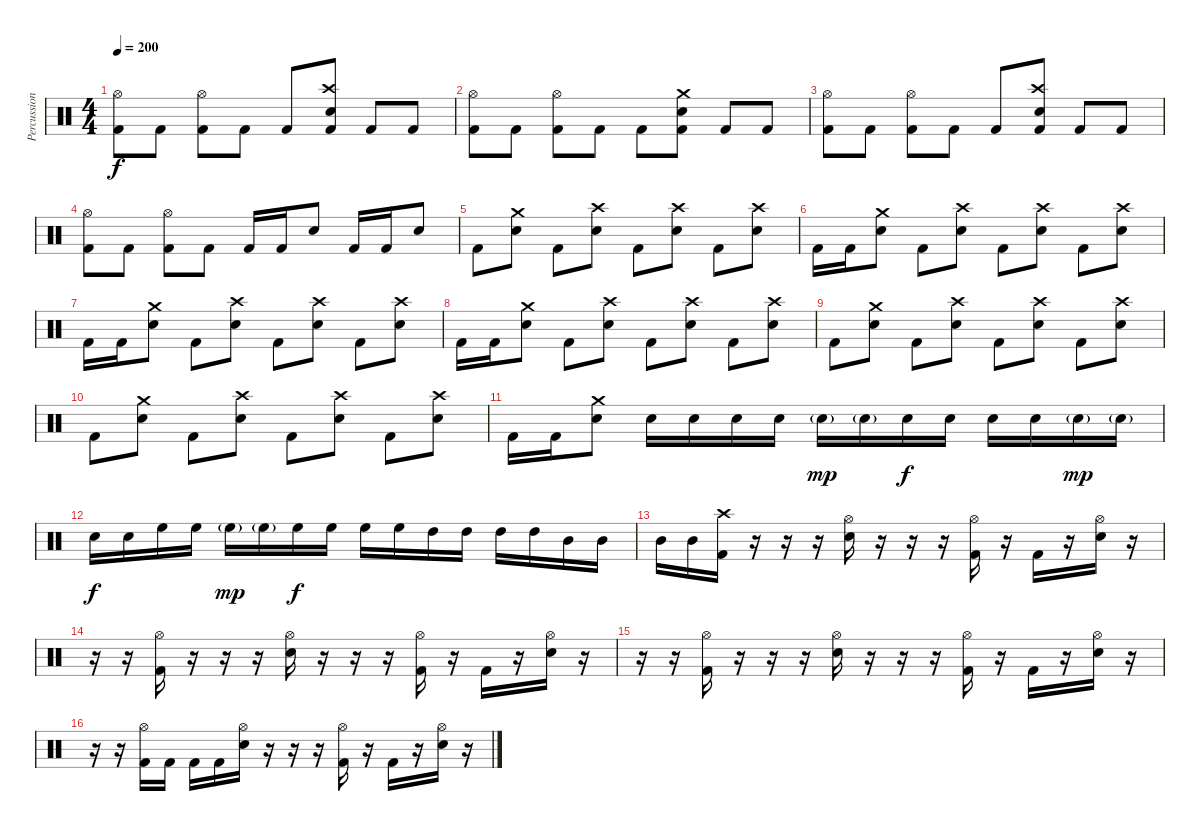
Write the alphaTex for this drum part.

\track ("Percussion" "Percussion") {instrument percussion}
\staff {score}
\articulation defaults
\ts (4 4)
\tempo 200
\clef neutral
\ks c
("Hi-Hat (open)" "Kick (hit) 2").8{dy f} "Kick (hit) 2".8 ("Hi-Hat (open)" "Kick (hit) 2").8 "Kick (hit) 2".8 "Kick (hit) 2".8 ("Crash high (hit)" "Snare (hit) 2" "Kick (hit) 2").8 "Kick (hit) 2".8 "Kick (hit) 2".8 |
("Hi-Hat (open)" "Kick (hit) 2").8 "Kick (hit) 2".8 ("Hi-Hat (open)" "Kick (hit) 2").8 "Kick (hit) 2".8 "Kick (hit) 2".8 ("Crash medium (hit)" "Snare (hit) 2" "Kick (hit) 2").8 "Kick (hit) 2".8 "Kick (hit) 2".8 |
("Hi-Hat (open)" "Kick (hit) 2").8 "Kick (hit) 2".8 ("Hi-Hat (open)" "Kick (hit) 2").8 "Kick (hit) 2".8 "Kick (hit) 2".8 ("Crash high (hit)" "Snare (hit) 2" "Kick (hit) 2").8 "Kick (hit) 2".8 "Kick (hit) 2".8 |
("Hi-Hat (open)" "Kick (hit) 2").8 "Kick (hit) 2".8 ("Hi-Hat (open)" "Kick (hit) 2").8 "Kick (hit) 2".8 "Kick (hit) 2".16 "Kick (hit) 2".16 "Snare (hit) 2".8 "Kick (hit) 2".16 "Kick (hit) 2".16 "Snare (hit) 2".8 |
"Kick (hit) 2".8 ("Crash medium (hit)" "Snare (hit) 2").8 "Kick (hit) 2".8 ("Crash high (hit)" "Snare (hit) 2").8 "Kick (hit) 2".8 ("Crash high (hit)" "Snare (hit) 2").8 "Kick (hit) 2".8 ("Crash high (hit)" "Snare (hit) 2").8 |
"Kick (hit) 2".16 "Kick (hit) 2".16 ("Crash medium (hit)" "Snare (hit) 2").8 "Kick (hit) 2".8 ("Crash high (hit)" "Snare (hit) 2").8 "Kick (hit) 2".8 ("Crash high (hit)" "Snare (hit) 2").8 "Kick (hit) 2".8 ("Crash high (hit)" "Snare (hit) 2").8 |
"Kick (hit) 2".16 "Kick (hit) 2".16 ("Crash medium (hit)" "Snare (hit) 2").8 "Kick (hit) 2".8 ("Crash high (hit)" "Snare (hit) 2").8 "Kick (hit) 2".8 ("Crash high (hit)" "Snare (hit) 2").8 "Kick (hit) 2".8 ("Crash high (hit)" "Snare (hit) 2").8 |
"Kick (hit) 2".16 "Kick (hit) 2".16 ("Crash medium (hit)" "Snare (hit) 2").8 "Kick (hit) 2".8 ("Crash high (hit)" "Snare (hit) 2").8 "Kick (hit) 2".8 ("Crash high (hit)" "Snare (hit) 2").8 "Kick (hit) 2".8 ("Crash high (hit)" "Snare (hit) 2").8 |
"Kick (hit) 2".8 ("Crash medium (hit)" "Snare (hit) 2").8 "Kick (hit) 2".8 ("Crash high (hit)" "Snare (hit) 2").8 "Kick (hit) 2".8 ("Crash high (hit)" "Snare (hit) 2").8 "Kick (hit) 2".8 ("Crash high (hit)" "Snare (hit) 2").8 |
"Kick (hit) 2".8 ("Crash medium (hit)" "Snare (hit) 2").8 "Kick (hit) 2".8 ("Crash high (hit)" "Snare (hit) 2").8 "Kick (hit) 2".8 ("Crash high (hit)" "Snare (hit) 2").8 "Kick (hit) 2".8 ("Crash high (hit)" "Snare (hit) 2").8 |
"Kick (hit) 2".16 "Kick (hit) 2".16 ("Crash medium (hit)" "Snare (hit) 2").8 "Snare (hit) 2".16 "Snare (hit) 2".16 "Snare (hit) 2".16 "Snare (hit) 2".16 "Snare (hit) 2"{g}.16{dy mp} "Snare (hit) 2"{g}.16 "Snare (hit) 2".16{dy f} "Snare (hit) 2".16 "Snare (hit) 2".16 "Snare (hit) 2".16 "Snare (hit) 2"{g}.16{dy mp} "Snare (hit) 2"{g}.16 |
"Snare (hit) 2".16{dy f} "Snare (hit) 2".16 "High Floor Tom (hit)".16 "High Floor Tom (hit)".16 "High Floor Tom (hit)"{g}.16{dy mp} "High Floor Tom (hit)"{g}.16 "High Floor Tom (hit)".16{dy f} "High Floor Tom (hit)".16 "High Floor Tom (hit)".16 "High Floor Tom (hit)".16 "High Tom (hit)".16 "High Tom (hit)".16 "High Tom (hit)".16 "High Tom (hit)".16 "Mid Tom (hit)".16 "Mid Tom (hit)".16 |
"Mid Tom (hit)".16 "Mid Tom (hit)".16 ("Crash high (hit)" "Kick (hit) 2").16 r.16 r.16 r.16 ("Hi-Hat (open)" "Snare (hit) 2").16 r.16 r.16 r.16 ("Hi-Hat (open)" "Kick (hit) 2").16 r.16 "Kick (hit) 2".16 r.16 ("Hi-Hat (open)" "Snare (hit) 2").16 r.16 |
r.16 r.16 ("Hi-Hat (open)" "Kick (hit) 2").16 r.16 r.16 r.16 ("Hi-Hat (open)" "Snare (hit) 2").16 r.16 r.16 r.16 ("Hi-Hat (open)" "Kick (hit) 2").16 r.16 "Kick (hit) 2".16 r.16 ("Hi-Hat (open)" "Snare (hit) 2").16 r.16 |
r.16 r.16 ("Hi-Hat (open)" "Kick (hit) 2").16 r.16 r.16 r.16 ("Hi-Hat (open)" "Snare (hit) 2").16 r.16 r.16 r.16 ("Hi-Hat (open)" "Kick (hit) 2").16 r.16 "Kick (hit) 2".16 r.16 ("Hi-Hat (open)" "Snare (hit) 2").16 r.16 |
r.16 r.16 ("Hi-Hat (open)" "Kick (hit) 2").16 "Kick (hit) 2".16 "Kick (hit) 2".16 "Kick (hit) 2".16 ("Hi-Hat (open)" "Snare (hit) 2").16 r.16 r.16 r.16 ("Hi-Hat (open)" "Kick (hit) 2").16 r.16 "Kick (hit) 2".16 r.16 ("Hi-Hat (open)" "Snare (hit) 2").16 r.16
